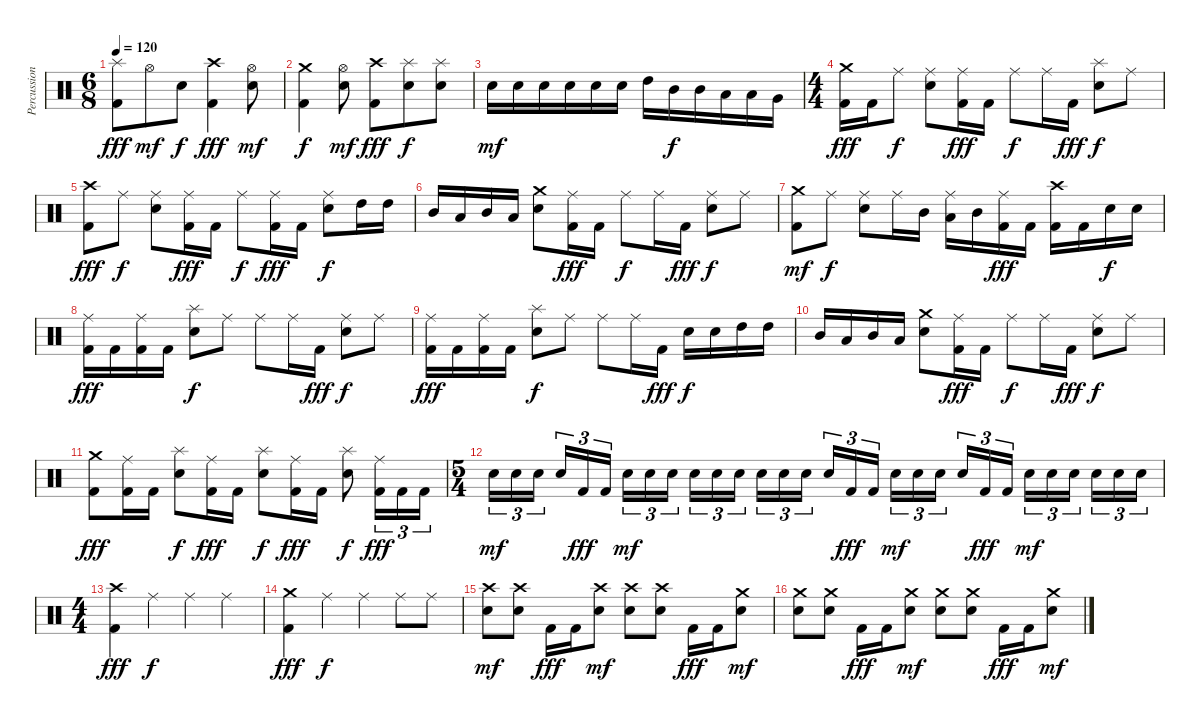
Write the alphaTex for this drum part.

\track ("Percussion" "Percussion") {instrument percussion}
\staff {score}
\articulation defaults
\ts (6 8)
\tempo 120
\clef neutral
\ks c
("Splash (hit)" "Kick (hit) 2").8{dy fff} "Hi-Hat (open)".8{dy mf} "Electric Snare (hit)".8{dy f} ("Crash high (hit)" "Kick (hit) 2").4{dy fff} ("Hi-Hat (open)" "Electric Snare (hit)").8{dy mf} |
("Crash medium (hit)" "Kick (hit) 2").4{dy f} ("Hi-Hat (open)" "Electric Snare (hit)").8{dy mf} ("Crash high (hit)" "Kick (hit) 2").8{dy fff} ("Splash (hit)" "Electric Snare (hit)").8{dy f} ("Splash (hit)" "Electric Snare (hit)").8 |
"Electric Snare (hit)".16{dy mf} "Electric Snare (hit)".16 "Electric Snare (hit)".16 "Electric Snare (hit)".16 "Electric Snare (hit)".16 "Electric Snare (hit)".16 "High Tom (hit)".16 "Mid Tom (hit)".16{dy f} "Mid Tom (hit)".16 "Low Tom (hit)".16 "Low Tom (hit)".16 "Very Low Tom (hit)".16 |
\ts (4 4)
("Crash medium (hit)" "Kick (hit) 2").16{dy fff} "Kick (hit) 2".16 "Ride (middle)".8{dy f} ("Ride (middle)" "Electric Snare (hit)").8 ("Ride (middle)" "Kick (hit) 2").16{dy fff} "Kick (hit) 2".16 "Ride (middle)".8{dy f} "Ride (middle)".16 "Kick (hit) 2".16{dy fff} ("Splash (hit)" "Electric Snare (hit)").8{dy f} "Ride (middle)".8 |
("Crash high (hit)" "Kick (hit) 2").8{dy fff} "Ride (middle)".8{dy f} ("Ride (middle)" "Electric Snare (hit)").8 ("Ride (middle)" "Kick (hit) 2").16{dy fff} "Kick (hit) 2".16 "Ride (middle)".8{dy f} ("Ride (middle)" "Kick (hit) 2").16{dy fff} "Kick (hit) 2".16 ("Ride (middle)" "Electric Snare (hit)").8{dy f} "High Tom (hit)".16 "High Tom (hit)".16 |
"Mid Tom (hit)".16 "Low Tom (hit)".16 "Mid Tom (hit)".16 "Low Tom (hit)".16 ("Crash medium (hit)" "Electric Snare (hit)").8 ("Ride (middle)" "Kick (hit) 2").16{dy fff} "Kick (hit) 2".16 "Ride (middle)".8{dy f} "Ride (middle)".16 "Kick (hit) 2".16{dy fff} ("Ride (middle)" "Electric Snare (hit)").8{dy f} "Ride (middle)".8 |
("Crash medium (hit)" "Kick (hit) 2").8{dy mf} "Ride (middle)".8{dy f} ("Ride (middle)" "Electric Snare (hit)").8 "Ride (middle)".16 "Mid Tom (hit)".16 ("Ride (middle)" "Low Tom (hit)").16 "Mid Tom (hit)".16 ("Ride (middle)" "Kick (hit) 2").16{dy fff} "Kick (hit) 2".16 ("Crash high (hit)" "Kick (hit) 2").16 "Kick (hit) 2".16 "Electric Snare (hit)".16{dy f} "Electric Snare (hit)".16 |
("Ride (middle)" "Kick (hit) 2").16{dy fff} "Kick (hit) 2".16 ("Ride (middle)" "Kick (hit) 2").16 "Kick (hit) 2".16 ("Splash (hit)" "Electric Snare (hit)").8{dy f} "Ride (middle)".8 "Ride (middle)".8 "Ride (middle)".16 "Kick (hit) 2".16{dy fff} ("Ride (middle)" "Electric Snare (hit)").8{dy f} "Ride (middle)".8 |
("Ride (middle)" "Kick (hit) 2").16{dy fff} "Kick (hit) 2".16 ("Ride (middle)" "Kick (hit) 2").16 "Kick (hit) 2".16 ("Splash (hit)" "Electric Snare (hit)").8{dy f} "Ride (middle)".8 "Ride (middle)".8 "Ride (middle)".16 "Kick (hit) 2".16{dy fff} "Electric Snare (hit)".16{dy f} "Electric Snare (hit)".16 "High Tom (hit)".16 "High Tom (hit)".16 |
"Mid Tom (hit)".16 "Low Tom (hit)".16 "Mid Tom (hit)".16 "Low Tom (hit)".16 ("Crash medium (hit)" "Electric Snare (hit)").8 ("Ride (middle)" "Kick (hit) 2").16{dy fff} "Kick (hit) 2".16 "Ride (middle)".8{dy f} "Ride (middle)".16 "Kick (hit) 2".16{dy fff} ("Ride (middle)" "Electric Snare (hit)").8{dy f} "Ride (middle)".8 |
("Crash medium (hit)" "Kick (hit) 2").8{dy fff} ("Ride (middle)" "Kick (hit) 2").16 "Kick (hit) 2".16 ("Splash (hit)" "Electric Snare (hit)").8{dy f} ("Ride (middle)" "Kick (hit) 2").16{dy fff} "Kick (hit) 2".16 ("Splash (hit)" "Electric Snare (hit)").8{dy f} ("Ride (middle)" "Kick (hit) 2").16{dy fff} "Kick (hit) 2".16 ("Splash (hit)" "Electric Snare (hit)").8{dy f} ("Ride (middle)" "Kick (hit) 2").16{tu (3 2) dy fff} "Kick (hit) 2".16{tu (3 2)} "Kick (hit) 2".16{tu (3 2)} |
\ts (5 4)
"Electric Snare (hit)".16{tu (3 2) dy mf} "Electric Snare (hit)".16{tu (3 2)} "Electric Snare (hit)".16{tu (3 2)} "Electric Snare (hit)".16{tu (3 2)} "Kick (hit) 2".16{tu (3 2) dy fff} "Kick (hit) 2".16{tu (3 2)} "Electric Snare (hit)".16{tu (3 2) dy mf} "Electric Snare (hit)".16{tu (3 2)} "Electric Snare (hit)".16{tu (3 2)} "Electric Snare (hit)".16{tu (3 2)} "Electric Snare (hit)".16{tu (3 2)} "Electric Snare (hit)".16{tu (3 2)} "Electric Snare (hit)".16{tu (3 2)} "Electric Snare (hit)".16{tu (3 2)} "Electric Snare (hit)".16{tu (3 2)} "Electric Snare (hit)".16{tu (3 2)} "Kick (hit) 2".16{tu (3 2) dy fff} "Kick (hit) 2".16{tu (3 2)} "Electric Snare (hit)".16{tu (3 2) dy mf} "Electric Snare (hit)".16{tu (3 2)} "Electric Snare (hit)".16{tu (3 2)} "Electric Snare (hit)".16{tu (3 2)} "Kick (hit) 2".16{tu (3 2) dy fff} "Kick (hit) 2".16{tu (3 2)} "Electric Snare (hit)".16{tu (3 2) dy mf} "Electric Snare (hit)".16{tu (3 2)} "Electric Snare (hit)".16{tu (3 2)} "Electric Snare (hit)".16{tu (3 2)} "Electric Snare (hit)".16{tu (3 2)} "Electric Snare (hit)".16{tu (3 2)} |
\ts (4 4)
("Crash high (hit)" "Kick (hit) 2").4{dy fff} "Ride (middle)".4{dy f} "Ride (middle)".4 "Ride (middle)".4 |
("Crash medium (hit)" "Kick (hit) 2").4{dy fff} "Ride (middle)".4{dy f} "Ride (middle)".4 "Ride (middle)".8 "Ride (middle)".8 |
("Crash high (hit)" "Electric Snare (hit)").8{dy mf} ("Crash high (hit)" "Electric Snare (hit)").8 "Kick (hit) 2".16{dy fff} "Kick (hit) 2".16 ("Crash high (hit)" "Electric Snare (hit)").8{dy mf} ("Crash high (hit)" "Electric Snare (hit)").8 ("Crash high (hit)" "Electric Snare (hit)").8 "Kick (hit) 2".16{dy fff} "Kick (hit) 2".16 ("Crash medium (hit)" "Electric Snare (hit)").8{dy mf} |
("Crash medium (hit)" "Electric Snare (hit)").8 ("Crash medium (hit)" "Electric Snare (hit)").8 "Kick (hit) 2".16{dy fff} "Kick (hit) 2".16 ("Crash medium (hit)" "Electric Snare (hit)").8{dy mf} ("Crash medium (hit)" "Electric Snare (hit)").8 ("Crash medium (hit)" "Electric Snare (hit)").8 "Kick (hit) 2".16{dy fff} "Kick (hit) 2".16 ("Crash medium (hit)" "Electric Snare (hit)").8{dy mf}
